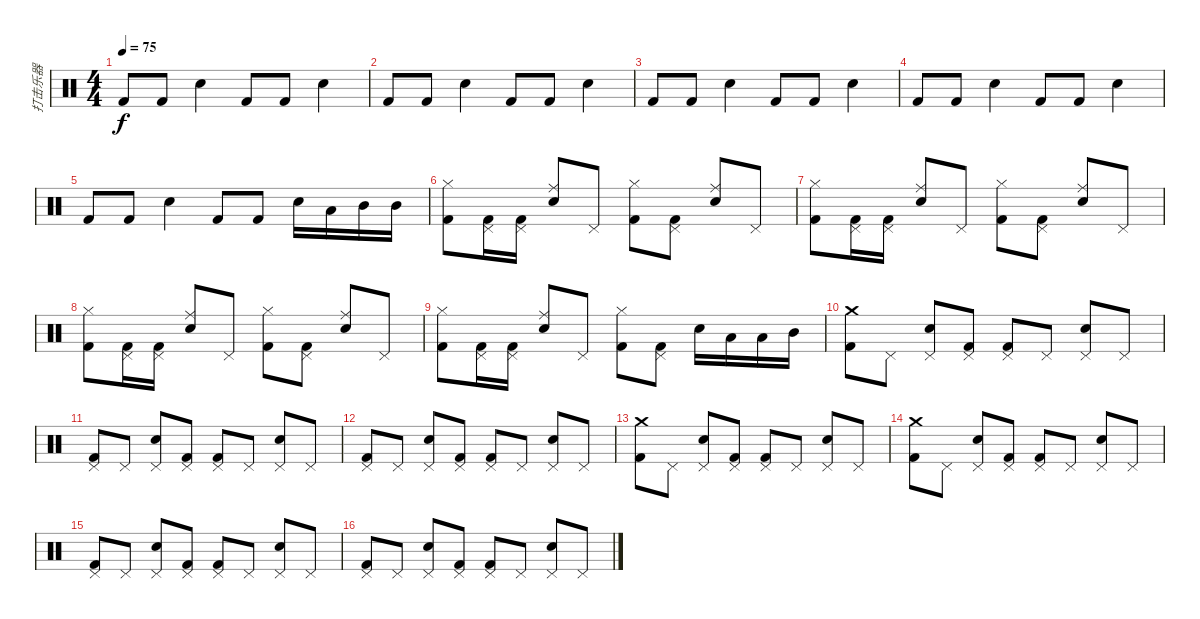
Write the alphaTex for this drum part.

\track ("打击乐器" "打击乐器") {instrument percussion}
\staff {score}
\articulation defaults
\ts (4 4)
\tempo 75
\clef neutral
\ks c "Kick (hit) 2".8{dy f} "Kick (hit) 2".8 "Snare (hit) 2".4 "Kick (hit) 2".8 "Kick (hit) 2".8 "Snare (hit) 2".4
|
"Kick (hit) 2".8 "Kick (hit) 2".8 "Snare (hit) 2".4 "Kick (hit) 2".8 "Kick (hit) 2".8 "Snare (hit) 2".4 |
"Kick (hit) 2".8 "Kick (hit) 2".8 "Snare (hit) 2".4 "Kick (hit) 2".8 "Kick (hit) 2".8 "Snare (hit) 2".4 |
"Kick (hit) 2".8 "Kick (hit) 2".8 "Snare (hit) 2".4 "Kick (hit) 2".8 "Kick (hit) 2".8 "Snare (hit) 2".4 |
"Kick (hit) 2".8 "Kick (hit) 2".8 "Snare (hit) 2".4 "Kick (hit) 2".8 "Kick (hit) 2".8 "Snare (hit) 2".16 "Low Tom (hit)".16 "Mid Tom (hit)".16 "Mid Tom (hit)".16 |
("Hi-Hat (closed)" "Kick (hit) 2").8 ("Pedal Hi-Hat (hit)" "Kick (hit) 2").16 ("Pedal Hi-Hat (hit)" "Kick (hit) 2").16 ("Ride (middle)" "Electric Snare (hit)").8 "Pedal Hi-Hat (hit)".8 ("Hi-Hat (closed)" "Kick (hit) 2").8 ("Pedal Hi-Hat (hit)" "Kick (hit) 2").8 ("Ride (middle)" "Electric Snare (hit)").8 "Pedal Hi-Hat (hit)".8 |
("Hi-Hat (closed)" "Kick (hit) 2").8 ("Pedal Hi-Hat (hit)" "Kick (hit) 2").16 ("Pedal Hi-Hat (hit)" "Kick (hit) 2").16 ("Ride (middle)" "Electric Snare (hit)").8 "Pedal Hi-Hat (hit)".8 ("Hi-Hat (closed)" "Kick (hit) 2").8 ("Pedal Hi-Hat (hit)" "Kick (hit) 2").8 ("Ride (middle)" "Electric Snare (hit)").8 "Pedal Hi-Hat (hit)".8 |
("Hi-Hat (closed)" "Kick (hit) 2").8 ("Pedal Hi-Hat (hit)" "Kick (hit) 2").16 ("Pedal Hi-Hat (hit)" "Kick (hit) 2").16 ("Ride (middle)" "Electric Snare (hit)").8 "Pedal Hi-Hat (hit)".8 ("Hi-Hat (closed)" "Kick (hit) 2").8 ("Pedal Hi-Hat (hit)" "Kick (hit) 2").8 ("Ride (middle)" "Electric Snare (hit)").8 "Pedal Hi-Hat (hit)".8 |
("Hi-Hat (closed)" "Kick (hit) 2").8 ("Pedal Hi-Hat (hit)" "Kick (hit) 2").16 ("Pedal Hi-Hat (hit)" "Kick (hit) 2").16 ("Ride (middle)" "Electric Snare (hit)").8 "Pedal Hi-Hat (hit)".8 ("Hi-Hat (closed)" "Kick (hit) 2").8 ("Pedal Hi-Hat (hit)" "Kick (hit) 2").8 "Electric Snare (hit)".16 "Low Tom (hit)".16 "Low Tom (hit)".16 "Mid Tom (hit)".16 |
("Crash medium (hit)" "Kick (hit) 2").8 "Pedal Hi-Hat (hit)".8 ("Pedal Hi-Hat (hit)" "Electric Snare (hit)").8 ("Pedal Hi-Hat (hit)" "Kick (hit) 2").8 ("Pedal Hi-Hat (hit)" "Kick (hit) 2").8 "Pedal Hi-Hat (hit)".8 ("Pedal Hi-Hat (hit)" "Electric Snare (hit)").8 "Pedal Hi-Hat (hit)".8 |
("Pedal Hi-Hat (hit)" "Kick (hit) 2").8 "Pedal Hi-Hat (hit)".8 ("Pedal Hi-Hat (hit)" "Electric Snare (hit)").8 ("Pedal Hi-Hat (hit)" "Kick (hit) 2").8 ("Pedal Hi-Hat (hit)" "Kick (hit) 2").8 "Pedal Hi-Hat (hit)".8 ("Pedal Hi-Hat (hit)" "Electric Snare (hit)").8 "Pedal Hi-Hat (hit)".8 |
("Pedal Hi-Hat (hit)" "Kick (hit) 2").8 "Pedal Hi-Hat (hit)".8 ("Pedal Hi-Hat (hit)" "Electric Snare (hit)").8 ("Pedal Hi-Hat (hit)" "Kick (hit) 2").8 ("Pedal Hi-Hat (hit)" "Kick (hit) 2").8 "Pedal Hi-Hat (hit)".8 ("Pedal Hi-Hat (hit)" "Electric Snare (hit)").8 "Pedal Hi-Hat (hit)".8 |
("Crash medium (hit)" "Kick (hit) 2").8 "Pedal Hi-Hat (hit)".8 ("Pedal Hi-Hat (hit)" "Electric Snare (hit)").8 ("Pedal Hi-Hat (hit)" "Kick (hit) 2").8 ("Pedal Hi-Hat (hit)" "Kick (hit) 2").8 "Pedal Hi-Hat (hit)".8 ("Pedal Hi-Hat (hit)" "Electric Snare (hit)").8 "Pedal Hi-Hat (hit)".8 |
("Crash medium (hit)" "Kick (hit) 2").8 "Pedal Hi-Hat (hit)".8 ("Pedal Hi-Hat (hit)" "Electric Snare (hit)").8 ("Pedal Hi-Hat (hit)" "Kick (hit) 2").8 ("Pedal Hi-Hat (hit)" "Kick (hit) 2").8 "Pedal Hi-Hat (hit)".8 ("Pedal Hi-Hat (hit)" "Electric Snare (hit)").8 "Pedal Hi-Hat (hit)".8 |
("Pedal Hi-Hat (hit)" "Kick (hit) 2").8 "Pedal Hi-Hat (hit)".8 ("Pedal Hi-Hat (hit)" "Electric Snare (hit)").8 ("Pedal Hi-Hat (hit)" "Kick (hit) 2").8 ("Pedal Hi-Hat (hit)" "Kick (hit) 2").8 "Pedal Hi-Hat (hit)".8 ("Pedal Hi-Hat (hit)" "Electric Snare (hit)").8 "Pedal Hi-Hat (hit)".8 |
("Pedal Hi-Hat (hit)" "Kick (hit) 2").8 "Pedal Hi-Hat (hit)".8 ("Pedal Hi-Hat (hit)" "Electric Snare (hit)").8 ("Pedal Hi-Hat (hit)" "Kick (hit) 2").8 ("Pedal Hi-Hat (hit)" "Kick (hit) 2").8 "Pedal Hi-Hat (hit)".8 ("Pedal Hi-Hat (hit)" "Electric Snare (hit)").8 "Pedal Hi-Hat (hit)".8
